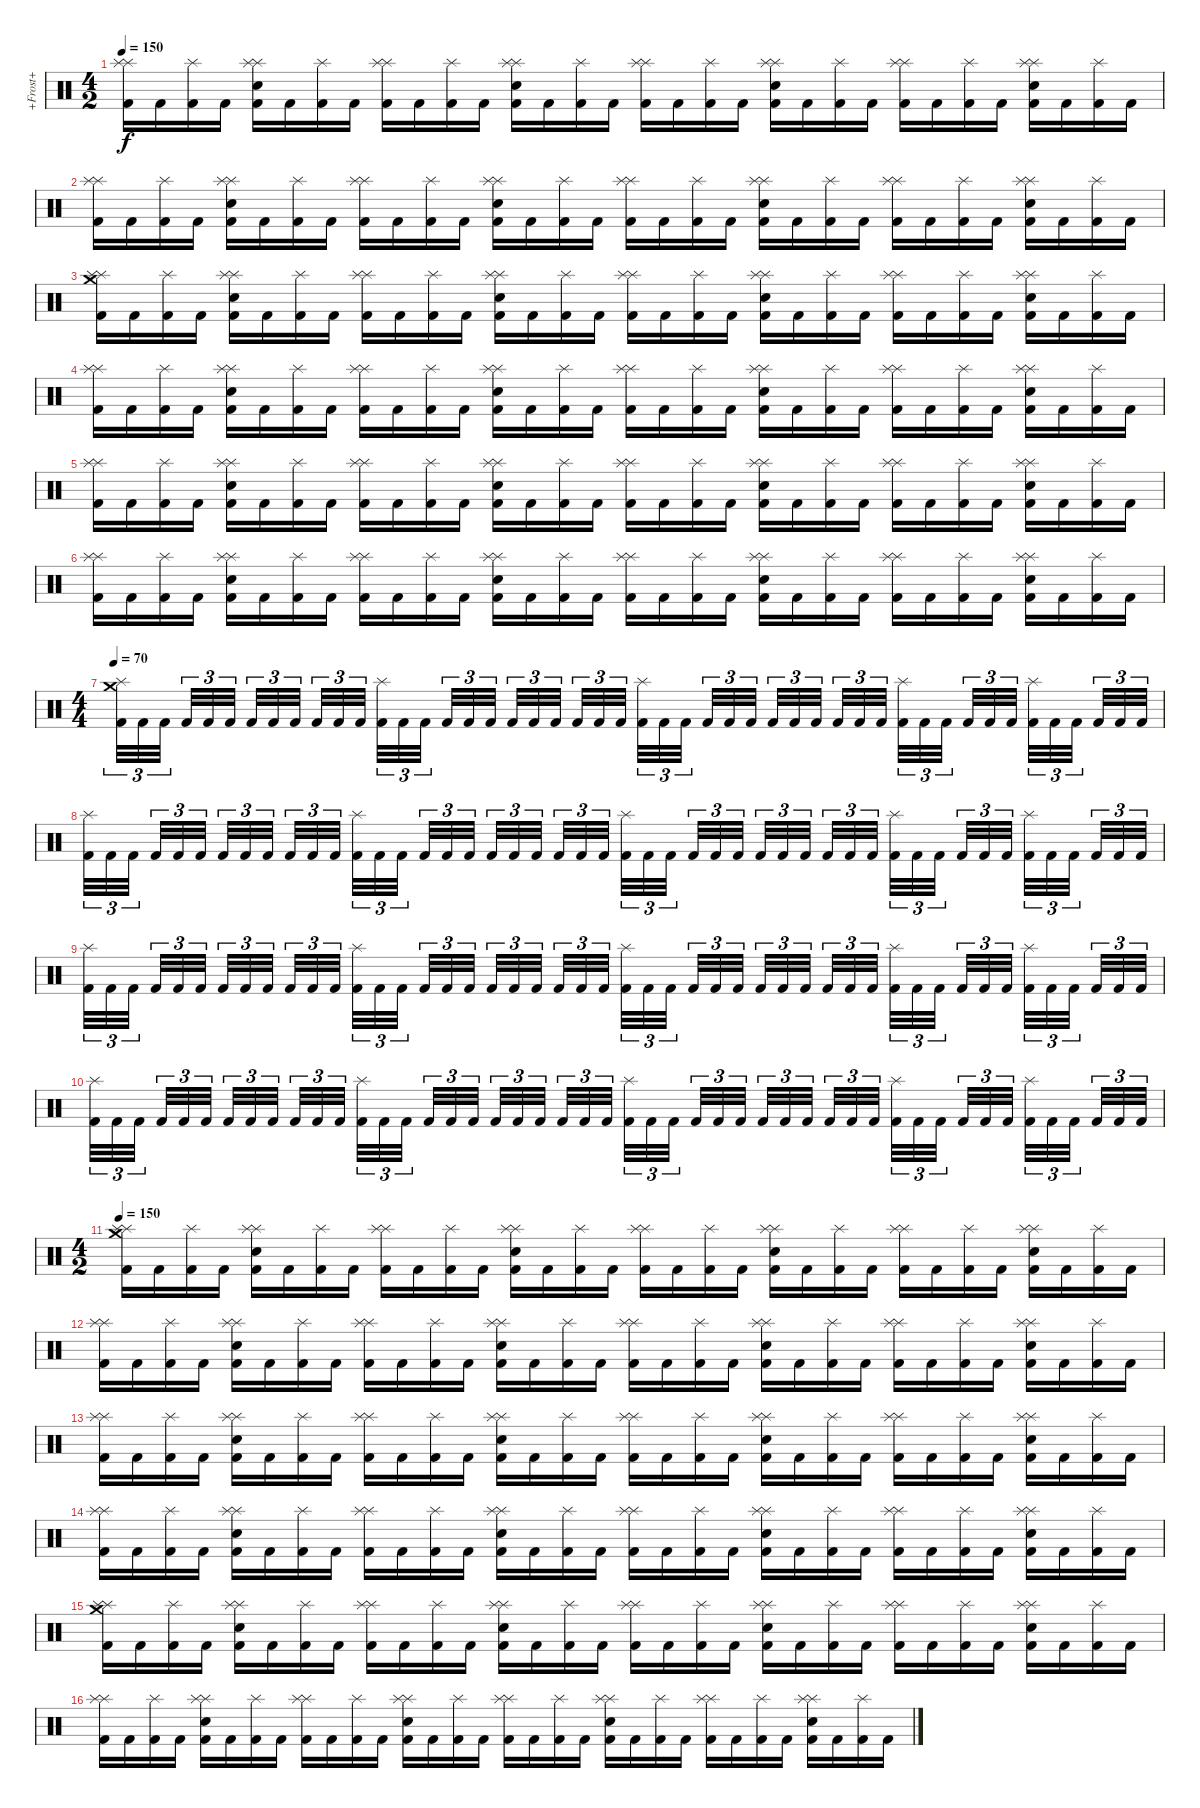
\track ("+Frost+" "+Frost+") {instrument percussion}
\staff {score}
\articulation defaults
\ts (4 2)
\tempo 150
\clef neutral
\ks c
("Kick (hit) 2" "Splash (hit)" "Splash (hit)").16{dy f} "Kick (hit) 2".16 ("Kick (hit) 2" "Splash (hit)").16 "Kick (hit) 2".16 ("Kick (hit) 2" "Splash (hit)" "Splash (hit)" "Electric Snare (hit)").16 "Kick (hit) 2".16 ("Kick (hit) 2" "Splash (hit)").16 "Kick (hit) 2".16 ("Kick (hit) 2" "Splash (hit)" "Splash (hit)").16 "Kick (hit) 2".16 ("Kick (hit) 2" "Splash (hit)").16 "Kick (hit) 2".16 ("Kick (hit) 2" "Splash (hit)" "Splash (hit)" "Electric Snare (hit)").16 "Kick (hit) 2".16 ("Kick (hit) 2" "Splash (hit)").16 "Kick (hit) 2".16 ("Kick (hit) 2" "Splash (hit)" "Splash (hit)").16 "Kick (hit) 2".16 ("Kick (hit) 2" "Splash (hit)").16 "Kick (hit) 2".16 ("Kick (hit) 2" "Splash (hit)" "Splash (hit)" "Electric Snare (hit)").16 "Kick (hit) 2".16 ("Kick (hit) 2" "Splash (hit)").16 "Kick (hit) 2".16 ("Kick (hit) 2" "Splash (hit)" "Splash (hit)").16 "Kick (hit) 2".16 ("Kick (hit) 2" "Splash (hit)").16 "Kick (hit) 2".16 ("Kick (hit) 2" "Splash (hit)" "Splash (hit)" "Electric Snare (hit)").16 "Kick (hit) 2".16 ("Kick (hit) 2" "Splash (hit)").16 "Kick (hit) 2".16 |
("Kick (hit) 2" "Splash (hit)" "Splash (hit)").16 "Kick (hit) 2".16 ("Kick (hit) 2" "Splash (hit)").16 "Kick (hit) 2".16 ("Kick (hit) 2" "Splash (hit)" "Splash (hit)" "Electric Snare (hit)").16 "Kick (hit) 2".16 ("Kick (hit) 2" "Splash (hit)").16 "Kick (hit) 2".16 ("Kick (hit) 2" "Splash (hit)" "Splash (hit)").16 "Kick (hit) 2".16 ("Kick (hit) 2" "Splash (hit)").16 "Kick (hit) 2".16 ("Kick (hit) 2" "Splash (hit)" "Splash (hit)" "Electric Snare (hit)").16 "Kick (hit) 2".16 ("Kick (hit) 2" "Splash (hit)").16 "Kick (hit) 2".16 ("Kick (hit) 2" "Splash (hit)" "Splash (hit)").16 "Kick (hit) 2".16 ("Kick (hit) 2" "Splash (hit)").16 "Kick (hit) 2".16 ("Kick (hit) 2" "Splash (hit)" "Splash (hit)" "Electric Snare (hit)").16 "Kick (hit) 2".16 ("Kick (hit) 2" "Splash (hit)").16 "Kick (hit) 2".16 ("Kick (hit) 2" "Splash (hit)" "Splash (hit)").16 "Kick (hit) 2".16 ("Kick (hit) 2" "Splash (hit)").16 "Kick (hit) 2".16 ("Kick (hit) 2" "Splash (hit)" "Splash (hit)" "Electric Snare (hit)").16 "Kick (hit) 2".16 ("Kick (hit) 2" "Splash (hit)").16 "Kick (hit) 2".16 |
("Kick (hit) 2" "Splash (hit)" "Splash (hit)" "Crash medium (hit)").16 "Kick (hit) 2".16 ("Kick (hit) 2" "Splash (hit)").16 "Kick (hit) 2".16 ("Kick (hit) 2" "Splash (hit)" "Splash (hit)" "Electric Snare (hit)").16 "Kick (hit) 2".16 ("Kick (hit) 2" "Splash (hit)").16 "Kick (hit) 2".16 ("Kick (hit) 2" "Splash (hit)" "Splash (hit)").16 "Kick (hit) 2".16 ("Kick (hit) 2" "Splash (hit)").16 "Kick (hit) 2".16 ("Kick (hit) 2" "Splash (hit)" "Splash (hit)" "Electric Snare (hit)").16 "Kick (hit) 2".16 ("Kick (hit) 2" "Splash (hit)").16 "Kick (hit) 2".16 ("Kick (hit) 2" "Splash (hit)" "Splash (hit)").16 "Kick (hit) 2".16 ("Kick (hit) 2" "Splash (hit)").16 "Kick (hit) 2".16 ("Kick (hit) 2" "Splash (hit)" "Splash (hit)" "Electric Snare (hit)").16 "Kick (hit) 2".16 ("Kick (hit) 2" "Splash (hit)").16 "Kick (hit) 2".16 ("Kick (hit) 2" "Splash (hit)" "Splash (hit)").16 "Kick (hit) 2".16 ("Kick (hit) 2" "Splash (hit)").16 "Kick (hit) 2".16 ("Kick (hit) 2" "Splash (hit)" "Splash (hit)" "Electric Snare (hit)").16 "Kick (hit) 2".16 ("Kick (hit) 2" "Splash (hit)").16 "Kick (hit) 2".16 |
("Kick (hit) 2" "Splash (hit)" "Splash (hit)").16 "Kick (hit) 2".16 ("Kick (hit) 2" "Splash (hit)").16 "Kick (hit) 2".16 ("Kick (hit) 2" "Splash (hit)" "Splash (hit)" "Electric Snare (hit)").16 "Kick (hit) 2".16 ("Kick (hit) 2" "Splash (hit)").16 "Kick (hit) 2".16 ("Kick (hit) 2" "Splash (hit)" "Splash (hit)").16 "Kick (hit) 2".16 ("Kick (hit) 2" "Splash (hit)").16 "Kick (hit) 2".16 ("Kick (hit) 2" "Splash (hit)" "Splash (hit)" "Electric Snare (hit)").16 "Kick (hit) 2".16 ("Kick (hit) 2" "Splash (hit)").16 "Kick (hit) 2".16 ("Kick (hit) 2" "Splash (hit)" "Splash (hit)").16 "Kick (hit) 2".16 ("Kick (hit) 2" "Splash (hit)").16 "Kick (hit) 2".16 ("Kick (hit) 2" "Splash (hit)" "Splash (hit)" "Electric Snare (hit)").16 "Kick (hit) 2".16 ("Kick (hit) 2" "Splash (hit)").16 "Kick (hit) 2".16 ("Kick (hit) 2" "Splash (hit)" "Splash (hit)").16 "Kick (hit) 2".16 ("Kick (hit) 2" "Splash (hit)").16 "Kick (hit) 2".16 ("Kick (hit) 2" "Splash (hit)" "Splash (hit)" "Electric Snare (hit)").16 "Kick (hit) 2".16 ("Kick (hit) 2" "Splash (hit)").16 "Kick (hit) 2".16 |
("Kick (hit) 2" "Splash (hit)" "Splash (hit)").16 "Kick (hit) 2".16 ("Kick (hit) 2" "Splash (hit)").16 "Kick (hit) 2".16 ("Kick (hit) 2" "Splash (hit)" "Splash (hit)" "Electric Snare (hit)").16 "Kick (hit) 2".16 ("Kick (hit) 2" "Splash (hit)").16 "Kick (hit) 2".16 ("Kick (hit) 2" "Splash (hit)" "Splash (hit)").16 "Kick (hit) 2".16 ("Kick (hit) 2" "Splash (hit)").16 "Kick (hit) 2".16 ("Kick (hit) 2" "Splash (hit)" "Splash (hit)" "Electric Snare (hit)").16 "Kick (hit) 2".16 ("Kick (hit) 2" "Splash (hit)").16 "Kick (hit) 2".16 ("Kick (hit) 2" "Splash (hit)" "Splash (hit)").16 "Kick (hit) 2".16 ("Kick (hit) 2" "Splash (hit)").16 "Kick (hit) 2".16 ("Kick (hit) 2" "Splash (hit)" "Splash (hit)" "Electric Snare (hit)").16 "Kick (hit) 2".16 ("Kick (hit) 2" "Splash (hit)").16 "Kick (hit) 2".16 ("Kick (hit) 2" "Splash (hit)" "Splash (hit)").16 "Kick (hit) 2".16 ("Kick (hit) 2" "Splash (hit)").16 "Kick (hit) 2".16 ("Kick (hit) 2" "Splash (hit)" "Splash (hit)" "Electric Snare (hit)").16 "Kick (hit) 2".16 ("Kick (hit) 2" "Splash (hit)").16 "Kick (hit) 2".16 |
("Kick (hit) 2" "Splash (hit)" "Splash (hit)").16 "Kick (hit) 2".16 ("Kick (hit) 2" "Splash (hit)").16 "Kick (hit) 2".16 ("Kick (hit) 2" "Splash (hit)" "Splash (hit)" "Electric Snare (hit)").16 "Kick (hit) 2".16 ("Kick (hit) 2" "Splash (hit)").16 "Kick (hit) 2".16 ("Kick (hit) 2" "Splash (hit)" "Splash (hit)").16 "Kick (hit) 2".16 ("Kick (hit) 2" "Splash (hit)").16 "Kick (hit) 2".16 ("Kick (hit) 2" "Splash (hit)" "Splash (hit)" "Electric Snare (hit)").16 "Kick (hit) 2".16 ("Kick (hit) 2" "Splash (hit)").16 "Kick (hit) 2".16 ("Kick (hit) 2" "Splash (hit)" "Splash (hit)").16 "Kick (hit) 2".16 ("Kick (hit) 2" "Splash (hit)").16 "Kick (hit) 2".16 ("Kick (hit) 2" "Splash (hit)" "Splash (hit)" "Electric Snare (hit)").16 "Kick (hit) 2".16 ("Kick (hit) 2" "Splash (hit)").16 "Kick (hit) 2".16 ("Kick (hit) 2" "Splash (hit)" "Splash (hit)").16 "Kick (hit) 2".16 ("Kick (hit) 2" "Splash (hit)").16 "Kick (hit) 2".16 ("Kick (hit) 2" "Splash (hit)" "Splash (hit)" "Electric Snare (hit)").16 "Kick (hit) 2".16 ("Kick (hit) 2" "Splash (hit)").16 "Kick (hit) 2".16 |
\ts (4 4)
\tempo 70
("Kick (hit) 2" "Crash medium (hit)" "Splash (hit)").32{tu (3 2)} "Kick (hit) 2".32{tu (3 2)} "Kick (hit) 2".32{tu (3 2)} "Kick (hit) 2".32{tu (3 2)} "Kick (hit) 2".32{tu (3 2)} "Kick (hit) 2".32{tu (3 2)} "Kick (hit) 2".32{tu (3 2)} "Kick (hit) 2".32{tu (3 2)} "Kick (hit) 2".32{tu (3 2)} "Kick (hit) 2".32{tu (3 2)} "Kick (hit) 2".32{tu (3 2)} "Kick (hit) 2".32{tu (3 2)} ("Kick (hit) 2" "Splash (hit)").32{tu (3 2)} "Kick (hit) 2".32{tu (3 2)} "Kick (hit) 2".32{tu (3 2)} "Kick (hit) 2".32{tu (3 2)} "Kick (hit) 2".32{tu (3 2)} "Kick (hit) 2".32{tu (3 2)} "Kick (hit) 2".32{tu (3 2)} "Kick (hit) 2".32{tu (3 2)} "Kick (hit) 2".32{tu (3 2)} "Kick (hit) 2".32{tu (3 2)} "Kick (hit) 2".32{tu (3 2)} "Kick (hit) 2".32{tu (3 2)} ("Kick (hit) 2" "Splash (hit)").32{tu (3 2)} "Kick (hit) 2".32{tu (3 2)} "Kick (hit) 2".32{tu (3 2)} "Kick (hit) 2".32{tu (3 2)} "Kick (hit) 2".32{tu (3 2)} "Kick (hit) 2".32{tu (3 2)} "Kick (hit) 2".32{tu (3 2)} "Kick (hit) 2".32{tu (3 2)} "Kick (hit) 2".32{tu (3 2)} "Kick (hit) 2".32{tu (3 2)} "Kick (hit) 2".32{tu (3 2)} "Kick (hit) 2".32{tu (3 2)} ("Kick (hit) 2" "Splash (hit)").32{tu (3 2)} "Kick (hit) 2".32{tu (3 2)} "Kick (hit) 2".32{tu (3 2)} "Kick (hit) 2".32{tu (3 2)} "Kick (hit) 2".32{tu (3 2)} "Kick (hit) 2".32{tu (3 2)} ("Kick (hit) 2" "Splash (hit)").32{tu (3 2)} "Kick (hit) 2".32{tu (3 2)} "Kick (hit) 2".32{tu (3 2)} "Kick (hit) 2".32{tu (3 2)} "Kick (hit) 2".32{tu (3 2)} "Kick (hit) 2".32{tu (3 2)} |
("Kick (hit) 2" "Splash (hit)").32{tu (3 2)} "Kick (hit) 2".32{tu (3 2)} "Kick (hit) 2".32{tu (3 2)} "Kick (hit) 2".32{tu (3 2)} "Kick (hit) 2".32{tu (3 2)} "Kick (hit) 2".32{tu (3 2)} "Kick (hit) 2".32{tu (3 2)} "Kick (hit) 2".32{tu (3 2)} "Kick (hit) 2".32{tu (3 2)} "Kick (hit) 2".32{tu (3 2)} "Kick (hit) 2".32{tu (3 2)} "Kick (hit) 2".32{tu (3 2)} ("Kick (hit) 2" "Splash (hit)").32{tu (3 2)} "Kick (hit) 2".32{tu (3 2)} "Kick (hit) 2".32{tu (3 2)} "Kick (hit) 2".32{tu (3 2)} "Kick (hit) 2".32{tu (3 2)} "Kick (hit) 2".32{tu (3 2)} "Kick (hit) 2".32{tu (3 2)} "Kick (hit) 2".32{tu (3 2)} "Kick (hit) 2".32{tu (3 2)} "Kick (hit) 2".32{tu (3 2)} "Kick (hit) 2".32{tu (3 2)} "Kick (hit) 2".32{tu (3 2)} ("Kick (hit) 2" "Splash (hit)").32{tu (3 2)} "Kick (hit) 2".32{tu (3 2)} "Kick (hit) 2".32{tu (3 2)} "Kick (hit) 2".32{tu (3 2)} "Kick (hit) 2".32{tu (3 2)} "Kick (hit) 2".32{tu (3 2)} "Kick (hit) 2".32{tu (3 2)} "Kick (hit) 2".32{tu (3 2)} "Kick (hit) 2".32{tu (3 2)} "Kick (hit) 2".32{tu (3 2)} "Kick (hit) 2".32{tu (3 2)} "Kick (hit) 2".32{tu (3 2)} ("Kick (hit) 2" "Splash (hit)").32{tu (3 2)} "Kick (hit) 2".32{tu (3 2)} "Kick (hit) 2".32{tu (3 2)} "Kick (hit) 2".32{tu (3 2)} "Kick (hit) 2".32{tu (3 2)} "Kick (hit) 2".32{tu (3 2)} ("Kick (hit) 2" "Splash (hit)").32{tu (3 2)} "Kick (hit) 2".32{tu (3 2)} "Kick (hit) 2".32{tu (3 2)} "Kick (hit) 2".32{tu (3 2)} "Kick (hit) 2".32{tu (3 2)} "Kick (hit) 2".32{tu (3 2)} |
("Kick (hit) 2" "Splash (hit)").32{tu (3 2)} "Kick (hit) 2".32{tu (3 2)} "Kick (hit) 2".32{tu (3 2)} "Kick (hit) 2".32{tu (3 2)} "Kick (hit) 2".32{tu (3 2)} "Kick (hit) 2".32{tu (3 2)} "Kick (hit) 2".32{tu (3 2)} "Kick (hit) 2".32{tu (3 2)} "Kick (hit) 2".32{tu (3 2)} "Kick (hit) 2".32{tu (3 2)} "Kick (hit) 2".32{tu (3 2)} "Kick (hit) 2".32{tu (3 2)} ("Kick (hit) 2" "Splash (hit)").32{tu (3 2)} "Kick (hit) 2".32{tu (3 2)} "Kick (hit) 2".32{tu (3 2)} "Kick (hit) 2".32{tu (3 2)} "Kick (hit) 2".32{tu (3 2)} "Kick (hit) 2".32{tu (3 2)} "Kick (hit) 2".32{tu (3 2)} "Kick (hit) 2".32{tu (3 2)} "Kick (hit) 2".32{tu (3 2)} "Kick (hit) 2".32{tu (3 2)} "Kick (hit) 2".32{tu (3 2)} "Kick (hit) 2".32{tu (3 2)} ("Kick (hit) 2" "Splash (hit)").32{tu (3 2)} "Kick (hit) 2".32{tu (3 2)} "Kick (hit) 2".32{tu (3 2)} "Kick (hit) 2".32{tu (3 2)} "Kick (hit) 2".32{tu (3 2)} "Kick (hit) 2".32{tu (3 2)} "Kick (hit) 2".32{tu (3 2)} "Kick (hit) 2".32{tu (3 2)} "Kick (hit) 2".32{tu (3 2)} "Kick (hit) 2".32{tu (3 2)} "Kick (hit) 2".32{tu (3 2)} "Kick (hit) 2".32{tu (3 2)} ("Kick (hit) 2" "Splash (hit)").32{tu (3 2)} "Kick (hit) 2".32{tu (3 2)} "Kick (hit) 2".32{tu (3 2)} "Kick (hit) 2".32{tu (3 2)} "Kick (hit) 2".32{tu (3 2)} "Kick (hit) 2".32{tu (3 2)} ("Kick (hit) 2" "Splash (hit)").32{tu (3 2)} "Kick (hit) 2".32{tu (3 2)} "Kick (hit) 2".32{tu (3 2)} "Kick (hit) 2".32{tu (3 2)} "Kick (hit) 2".32{tu (3 2)} "Kick (hit) 2".32{tu (3 2)} |
("Kick (hit) 2" "Splash (hit)").32{tu (3 2)} "Kick (hit) 2".32{tu (3 2)} "Kick (hit) 2".32{tu (3 2)} "Kick (hit) 2".32{tu (3 2)} "Kick (hit) 2".32{tu (3 2)} "Kick (hit) 2".32{tu (3 2)} "Kick (hit) 2".32{tu (3 2)} "Kick (hit) 2".32{tu (3 2)} "Kick (hit) 2".32{tu (3 2)} "Kick (hit) 2".32{tu (3 2)} "Kick (hit) 2".32{tu (3 2)} "Kick (hit) 2".32{tu (3 2)} ("Kick (hit) 2" "Splash (hit)").32{tu (3 2)} "Kick (hit) 2".32{tu (3 2)} "Kick (hit) 2".32{tu (3 2)} "Kick (hit) 2".32{tu (3 2)} "Kick (hit) 2".32{tu (3 2)} "Kick (hit) 2".32{tu (3 2)} "Kick (hit) 2".32{tu (3 2)} "Kick (hit) 2".32{tu (3 2)} "Kick (hit) 2".32{tu (3 2)} "Kick (hit) 2".32{tu (3 2)} "Kick (hit) 2".32{tu (3 2)} "Kick (hit) 2".32{tu (3 2)} ("Kick (hit) 2" "Splash (hit)").32{tu (3 2)} "Kick (hit) 2".32{tu (3 2)} "Kick (hit) 2".32{tu (3 2)} "Kick (hit) 2".32{tu (3 2)} "Kick (hit) 2".32{tu (3 2)} "Kick (hit) 2".32{tu (3 2)} "Kick (hit) 2".32{tu (3 2)} "Kick (hit) 2".32{tu (3 2)} "Kick (hit) 2".32{tu (3 2)} "Kick (hit) 2".32{tu (3 2)} "Kick (hit) 2".32{tu (3 2)} "Kick (hit) 2".32{tu (3 2)} ("Kick (hit) 2" "Splash (hit)").32{tu (3 2)} "Kick (hit) 2".32{tu (3 2)} "Kick (hit) 2".32{tu (3 2)} "Kick (hit) 2".32{tu (3 2)} "Kick (hit) 2".32{tu (3 2)} "Kick (hit) 2".32{tu (3 2)} ("Kick (hit) 2" "Splash (hit)").32{tu (3 2)} "Kick (hit) 2".32{tu (3 2)} "Kick (hit) 2".32{tu (3 2)} "Kick (hit) 2".32{tu (3 2)} "Kick (hit) 2".32{tu (3 2)} "Kick (hit) 2".32{tu (3 2)} |
\ts (4 2)
\tempo 150
("Kick (hit) 2" "Splash (hit)" "Splash (hit)" "Crash medium (hit)").16 "Kick (hit) 2".16 ("Kick (hit) 2" "Splash (hit)").16 "Kick (hit) 2".16 ("Kick (hit) 2" "Splash (hit)" "Splash (hit)" "Electric Snare (hit)").16 "Kick (hit) 2".16 ("Kick (hit) 2" "Splash (hit)").16 "Kick (hit) 2".16 ("Kick (hit) 2" "Splash (hit)" "Splash (hit)").16 "Kick (hit) 2".16 ("Kick (hit) 2" "Splash (hit)").16 "Kick (hit) 2".16 ("Kick (hit) 2" "Splash (hit)" "Splash (hit)" "Electric Snare (hit)").16 "Kick (hit) 2".16 ("Kick (hit) 2" "Splash (hit)").16 "Kick (hit) 2".16 ("Kick (hit) 2" "Splash (hit)" "Splash (hit)").16 "Kick (hit) 2".16 ("Kick (hit) 2" "Splash (hit)").16 "Kick (hit) 2".16 ("Kick (hit) 2" "Splash (hit)" "Splash (hit)" "Electric Snare (hit)").16 "Kick (hit) 2".16 ("Kick (hit) 2" "Splash (hit)").16 "Kick (hit) 2".16 ("Kick (hit) 2" "Splash (hit)" "Splash (hit)").16 "Kick (hit) 2".16 ("Kick (hit) 2" "Splash (hit)").16 "Kick (hit) 2".16 ("Kick (hit) 2" "Splash (hit)" "Splash (hit)" "Electric Snare (hit)").16 "Kick (hit) 2".16 ("Kick (hit) 2" "Splash (hit)").16 "Kick (hit) 2".16 |
("Kick (hit) 2" "Splash (hit)" "Splash (hit)").16 "Kick (hit) 2".16 ("Kick (hit) 2" "Splash (hit)").16 "Kick (hit) 2".16 ("Kick (hit) 2" "Splash (hit)" "Splash (hit)" "Electric Snare (hit)").16 "Kick (hit) 2".16 ("Kick (hit) 2" "Splash (hit)").16 "Kick (hit) 2".16 ("Kick (hit) 2" "Splash (hit)" "Splash (hit)").16 "Kick (hit) 2".16 ("Kick (hit) 2" "Splash (hit)").16 "Kick (hit) 2".16 ("Kick (hit) 2" "Splash (hit)" "Splash (hit)" "Electric Snare (hit)").16 "Kick (hit) 2".16 ("Kick (hit) 2" "Splash (hit)").16 "Kick (hit) 2".16 ("Kick (hit) 2" "Splash (hit)" "Splash (hit)").16 "Kick (hit) 2".16 ("Kick (hit) 2" "Splash (hit)").16 "Kick (hit) 2".16 ("Kick (hit) 2" "Splash (hit)" "Splash (hit)" "Electric Snare (hit)").16 "Kick (hit) 2".16 ("Kick (hit) 2" "Splash (hit)").16 "Kick (hit) 2".16 ("Kick (hit) 2" "Splash (hit)" "Splash (hit)").16 "Kick (hit) 2".16 ("Kick (hit) 2" "Splash (hit)").16 "Kick (hit) 2".16 ("Kick (hit) 2" "Splash (hit)" "Splash (hit)" "Electric Snare (hit)").16 "Kick (hit) 2".16 ("Kick (hit) 2" "Splash (hit)").16 "Kick (hit) 2".16 |
("Kick (hit) 2" "Splash (hit)" "Splash (hit)").16 "Kick (hit) 2".16 ("Kick (hit) 2" "Splash (hit)").16 "Kick (hit) 2".16 ("Kick (hit) 2" "Splash (hit)" "Splash (hit)" "Electric Snare (hit)").16 "Kick (hit) 2".16 ("Kick (hit) 2" "Splash (hit)").16 "Kick (hit) 2".16 ("Kick (hit) 2" "Splash (hit)" "Splash (hit)").16 "Kick (hit) 2".16 ("Kick (hit) 2" "Splash (hit)").16 "Kick (hit) 2".16 ("Kick (hit) 2" "Splash (hit)" "Splash (hit)" "Electric Snare (hit)").16 "Kick (hit) 2".16 ("Kick (hit) 2" "Splash (hit)").16 "Kick (hit) 2".16 ("Kick (hit) 2" "Splash (hit)" "Splash (hit)").16 "Kick (hit) 2".16 ("Kick (hit) 2" "Splash (hit)").16 "Kick (hit) 2".16 ("Kick (hit) 2" "Splash (hit)" "Splash (hit)" "Electric Snare (hit)").16 "Kick (hit) 2".16 ("Kick (hit) 2" "Splash (hit)").16 "Kick (hit) 2".16 ("Kick (hit) 2" "Splash (hit)" "Splash (hit)").16 "Kick (hit) 2".16 ("Kick (hit) 2" "Splash (hit)").16 "Kick (hit) 2".16 ("Kick (hit) 2" "Splash (hit)" "Splash (hit)" "Electric Snare (hit)").16 "Kick (hit) 2".16 ("Kick (hit) 2" "Splash (hit)").16 "Kick (hit) 2".16 |
("Kick (hit) 2" "Splash (hit)" "Splash (hit)").16 "Kick (hit) 2".16 ("Kick (hit) 2" "Splash (hit)").16 "Kick (hit) 2".16 ("Kick (hit) 2" "Splash (hit)" "Splash (hit)" "Electric Snare (hit)").16 "Kick (hit) 2".16 ("Kick (hit) 2" "Splash (hit)").16 "Kick (hit) 2".16 ("Kick (hit) 2" "Splash (hit)" "Splash (hit)").16 "Kick (hit) 2".16 ("Kick (hit) 2" "Splash (hit)").16 "Kick (hit) 2".16 ("Kick (hit) 2" "Splash (hit)" "Splash (hit)" "Electric Snare (hit)").16 "Kick (hit) 2".16 ("Kick (hit) 2" "Splash (hit)").16 "Kick (hit) 2".16 ("Kick (hit) 2" "Splash (hit)" "Splash (hit)").16 "Kick (hit) 2".16 ("Kick (hit) 2" "Splash (hit)").16 "Kick (hit) 2".16 ("Kick (hit) 2" "Splash (hit)" "Splash (hit)" "Electric Snare (hit)").16 "Kick (hit) 2".16 ("Kick (hit) 2" "Splash (hit)").16 "Kick (hit) 2".16 ("Kick (hit) 2" "Splash (hit)" "Splash (hit)").16 "Kick (hit) 2".16 ("Kick (hit) 2" "Splash (hit)").16 "Kick (hit) 2".16 ("Kick (hit) 2" "Splash (hit)" "Splash (hit)" "Electric Snare (hit)").16 "Kick (hit) 2".16 ("Kick (hit) 2" "Splash (hit)").16 "Kick (hit) 2".16 |
("Kick (hit) 2" "Splash (hit)" "Splash (hit)" "Crash medium (hit)").16 "Kick (hit) 2".16 ("Kick (hit) 2" "Splash (hit)").16 "Kick (hit) 2".16 ("Kick (hit) 2" "Splash (hit)" "Splash (hit)" "Electric Snare (hit)").16 "Kick (hit) 2".16 ("Kick (hit) 2" "Splash (hit)").16 "Kick (hit) 2".16 ("Kick (hit) 2" "Splash (hit)" "Splash (hit)").16 "Kick (hit) 2".16 ("Kick (hit) 2" "Splash (hit)").16 "Kick (hit) 2".16 ("Kick (hit) 2" "Splash (hit)" "Splash (hit)" "Electric Snare (hit)").16 "Kick (hit) 2".16 ("Kick (hit) 2" "Splash (hit)").16 "Kick (hit) 2".16 ("Kick (hit) 2" "Splash (hit)" "Splash (hit)").16 "Kick (hit) 2".16 ("Kick (hit) 2" "Splash (hit)").16 "Kick (hit) 2".16 ("Kick (hit) 2" "Splash (hit)" "Splash (hit)" "Electric Snare (hit)").16 "Kick (hit) 2".16 ("Kick (hit) 2" "Splash (hit)").16 "Kick (hit) 2".16 ("Kick (hit) 2" "Splash (hit)" "Splash (hit)").16 "Kick (hit) 2".16 ("Kick (hit) 2" "Splash (hit)").16 "Kick (hit) 2".16 ("Kick (hit) 2" "Splash (hit)" "Splash (hit)" "Electric Snare (hit)").16 "Kick (hit) 2".16 ("Kick (hit) 2" "Splash (hit)").16 "Kick (hit) 2".16 |
("Kick (hit) 2" "Splash (hit)" "Splash (hit)").16 "Kick (hit) 2".16 ("Kick (hit) 2" "Splash (hit)").16 "Kick (hit) 2".16 ("Kick (hit) 2" "Splash (hit)" "Splash (hit)" "Electric Snare (hit)").16 "Kick (hit) 2".16 ("Kick (hit) 2" "Splash (hit)").16 "Kick (hit) 2".16 ("Kick (hit) 2" "Splash (hit)" "Splash (hit)").16 "Kick (hit) 2".16 ("Kick (hit) 2" "Splash (hit)").16 "Kick (hit) 2".16 ("Kick (hit) 2" "Splash (hit)" "Splash (hit)" "Electric Snare (hit)").16 "Kick (hit) 2".16 ("Kick (hit) 2" "Splash (hit)").16 "Kick (hit) 2".16 ("Kick (hit) 2" "Splash (hit)" "Splash (hit)").16 "Kick (hit) 2".16 ("Kick (hit) 2" "Splash (hit)").16 "Kick (hit) 2".16 ("Kick (hit) 2" "Splash (hit)" "Splash (hit)" "Electric Snare (hit)").16 "Kick (hit) 2".16 ("Kick (hit) 2" "Splash (hit)").16 "Kick (hit) 2".16 ("Kick (hit) 2" "Splash (hit)" "Splash (hit)").16 "Kick (hit) 2".16 ("Kick (hit) 2" "Splash (hit)").16 "Kick (hit) 2".16 ("Kick (hit) 2" "Splash (hit)" "Splash (hit)" "Electric Snare (hit)").16 "Kick (hit) 2".16 ("Kick (hit) 2" "Splash (hit)").16 "Kick (hit) 2".16
